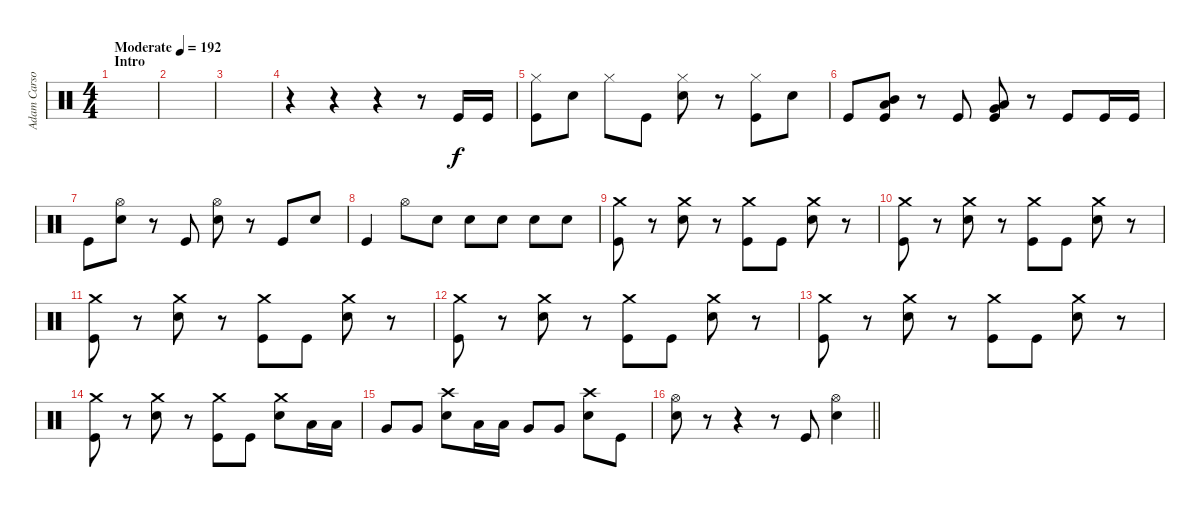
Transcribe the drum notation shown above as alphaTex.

\track ("Adam Carson" "Adam Carso") {instrument percussion}
\staff {score}
\articulation defaults
\ts (4 4)
\section ("" "Intro")
\tempo (192 "Moderate")
\clef neutral
\ks c
|
|
|
r.4 r.4 r.4 r.8 "Kick (hit)".16 "Kick (hit)".16 |
("Hi-Hat (closed)" "Kick (hit)").8 "Electric Snare (hit)".8 "Hi-Hat (closed)".8 "Kick (hit)".8 ("Hi-Hat (closed)" "Electric Snare (hit)").8 r.8 ("Hi-Hat (closed)" "Kick (hit)").8 "Electric Snare (hit)".8 |
"Kick (hit)".8 ("Mid Tom (hit)" "Low Tom (hit)" "Kick (hit)").8 r.8 "Kick (hit)".8 ("Low Tom (hit)" "Very Low Tom (hit)" "Kick (hit)").8 r.8 "Kick (hit)".8 "Kick (hit)".16 "Kick (hit)".16 |
"Kick (hit)".8 ("Hi-Hat (open)" "Electric Snare (hit)").8 r.8 "Kick (hit)".8 ("Hi-Hat (open)" "Electric Snare (hit)").8 r.8 "Kick (hit)".8 "Electric Snare (hit)".8 |
"Kick (hit)".4 "Hi-Hat (open)".8 "Electric Snare (hit)".8 "Electric Snare (hit)".8 "Electric Snare (hit)".8 "Electric Snare (hit)".8 "Electric Snare (hit)".8 |
("Crash medium (hit)" "Kick (hit)").8 r.8 ("Crash medium (hit)" "Electric Snare (hit)").8 r.8 ("Crash medium (hit)" "Kick (hit)").8 "Kick (hit)".8 ("Crash medium (hit)" "Electric Snare (hit)").8 r.8 |
("Crash medium (hit)" "Kick (hit)").8 r.8 ("Crash medium (hit)" "Electric Snare (hit)").8 r.8 ("Crash medium (hit)" "Kick (hit)").8 "Kick (hit)".8 ("Crash medium (hit)" "Electric Snare (hit)").8 r.8 |
("Crash medium (hit)" "Kick (hit)").8 r.8 ("Crash medium (hit)" "Electric Snare (hit)").8 r.8 ("Crash medium (hit)" "Kick (hit)").8 "Kick (hit)".8 ("Crash medium (hit)" "Electric Snare (hit)").8 r.8 |
("Crash medium (hit)" "Kick (hit)").8 r.8 ("Crash medium (hit)" "Electric Snare (hit)").8 r.8 ("Crash medium (hit)" "Kick (hit)").8 "Kick (hit)".8 ("Crash medium (hit)" "Electric Snare (hit)").8 r.8 |
("Crash medium (hit)" "Kick (hit)").8 r.8 ("Crash medium (hit)" "Electric Snare (hit)").8 r.8 ("Crash medium (hit)" "Kick (hit)").8 "Kick (hit)".8 ("Crash medium (hit)" "Electric Snare (hit)").8 r.8 |
("Crash medium (hit)" "Kick (hit)").8 r.8 ("Crash medium (hit)" "Electric Snare (hit)").8 r.8 ("Crash medium (hit)" "Kick (hit)").8 "Kick (hit)".8 ("Crash medium (hit)" "Electric Snare (hit)").8 "Low Tom (hit)".16 "Low Tom (hit)".16 |
"Very Low Tom (hit)".8 "Very Low Tom (hit)".8 ("Crash high (hit)" "Electric Snare (hit)").8 "Low Tom (hit)".16 "Low Tom (hit)".16 "Very Low Tom (hit)".8 "Very Low Tom (hit)".8 ("Crash high (hit)" "Electric Snare (hit)").8 "Kick (hit)".8 |
\barLineRight lightlight
("Hi-Hat (open)" "Electric Snare (hit)").8 r.8 r.4 r.8 "Kick (hit)".8 ("Hi-Hat (open)" "Electric Snare (hit)").4
